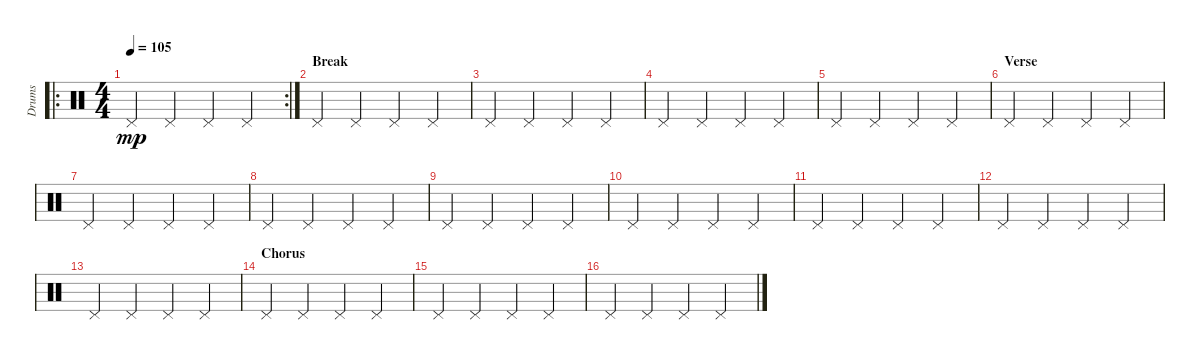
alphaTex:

\track ("Drums" "Drums") {instrument percussion}
\staff {score}
\articulation defaults
\ro
\rc 2
\ts (4 4)
\tempo 105
\clef neutral
\ks c "Pedal Hi-Hat (hit)".4{dy mp} "Pedal Hi-Hat (hit)".4 "Pedal Hi-Hat (hit)".4 "Pedal Hi-Hat (hit)".4
|
\section ("" "Break")
"Pedal Hi-Hat (hit)".4 "Pedal Hi-Hat (hit)".4 "Pedal Hi-Hat (hit)".4 "Pedal Hi-Hat (hit)".4 |
"Pedal Hi-Hat (hit)".4 "Pedal Hi-Hat (hit)".4 "Pedal Hi-Hat (hit)".4 "Pedal Hi-Hat (hit)".4 |
"Pedal Hi-Hat (hit)".4 "Pedal Hi-Hat (hit)".4 "Pedal Hi-Hat (hit)".4 "Pedal Hi-Hat (hit)".4 |
"Pedal Hi-Hat (hit)".4 "Pedal Hi-Hat (hit)".4 "Pedal Hi-Hat (hit)".4 "Pedal Hi-Hat (hit)".4 |
\section ("" "Verse")
"Pedal Hi-Hat (hit)".4 "Pedal Hi-Hat (hit)".4 "Pedal Hi-Hat (hit)".4 "Pedal Hi-Hat (hit)".4 |
"Pedal Hi-Hat (hit)".4 "Pedal Hi-Hat (hit)".4 "Pedal Hi-Hat (hit)".4 "Pedal Hi-Hat (hit)".4 |
"Pedal Hi-Hat (hit)".4 "Pedal Hi-Hat (hit)".4 "Pedal Hi-Hat (hit)".4 "Pedal Hi-Hat (hit)".4 |
"Pedal Hi-Hat (hit)".4 "Pedal Hi-Hat (hit)".4 "Pedal Hi-Hat (hit)".4 "Pedal Hi-Hat (hit)".4 |
"Pedal Hi-Hat (hit)".4 "Pedal Hi-Hat (hit)".4 "Pedal Hi-Hat (hit)".4 "Pedal Hi-Hat (hit)".4 |
"Pedal Hi-Hat (hit)".4 "Pedal Hi-Hat (hit)".4 "Pedal Hi-Hat (hit)".4 "Pedal Hi-Hat (hit)".4 |
"Pedal Hi-Hat (hit)".4 "Pedal Hi-Hat (hit)".4 "Pedal Hi-Hat (hit)".4 "Pedal Hi-Hat (hit)".4 |
"Pedal Hi-Hat (hit)".4 "Pedal Hi-Hat (hit)".4 "Pedal Hi-Hat (hit)".4 "Pedal Hi-Hat (hit)".4 |
\section ("" "Chorus")
"Pedal Hi-Hat (hit)".4 "Pedal Hi-Hat (hit)".4 "Pedal Hi-Hat (hit)".4 "Pedal Hi-Hat (hit)".4 |
"Pedal Hi-Hat (hit)".4 "Pedal Hi-Hat (hit)".4 "Pedal Hi-Hat (hit)".4 "Pedal Hi-Hat (hit)".4 |
"Pedal Hi-Hat (hit)".4 "Pedal Hi-Hat (hit)".4 "Pedal Hi-Hat (hit)".4 "Pedal Hi-Hat (hit)".4
